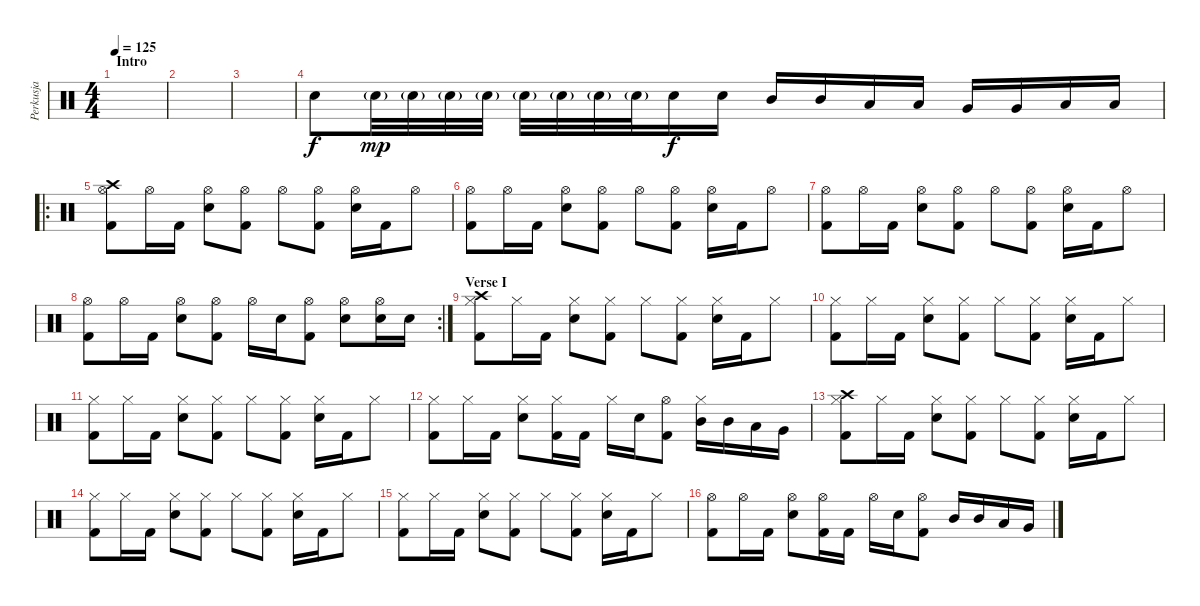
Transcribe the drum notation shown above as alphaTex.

\track ("Perkusja" "Perkusja") {instrument percussion}
\staff {score}
\articulation defaults
\ts (4 4)
\section ("" "Intro")
\tempo 125
\clef neutral
\ks c
|
|
|
"Electric Snare (hit)".8 "Electric Snare (hit)"{g}.32{dy mp} "Electric Snare (hit)"{g}.32 "Electric Snare (hit)"{g}.32 "Electric Snare (hit)"{g}.32 "Electric Snare (hit)"{g}.32 "Electric Snare (hit)"{g}.32 "Electric Snare (hit)"{g}.32 "Electric Snare (hit)"{g}.32 "Electric Snare (hit)".16{dy f} "Electric Snare (hit)".16 "Mid Tom (hit)".16 "Mid Tom (hit)".16 "Low Tom (hit)".16 "Low Tom (hit)".16 "Very Low Tom (hit)".16 "Very Low Tom (hit)".16 "Low Floor Tom (hit)".16 "Low Floor Tom (hit)".16 |
\ro
("Hi-Hat (open)" "Kick (hit) 2" "Crash high (hit)").8 "Hi-Hat (open)".16 "Kick (hit) 2".16 ("Hi-Hat (open)" "Electric Snare (hit)").8 ("Hi-Hat (open)" "Kick (hit) 2").8 "Hi-Hat (open)".8 ("Hi-Hat (open)" "Kick (hit) 2").8 ("Hi-Hat (open)" "Electric Snare (hit)").16 "Kick (hit) 2".16 "Hi-Hat (open)".8 |
("Hi-Hat (open)" "Kick (hit) 2").8 "Hi-Hat (open)".16 "Kick (hit) 2".16 ("Hi-Hat (open)" "Electric Snare (hit)").8 ("Hi-Hat (open)" "Kick (hit) 2").8 "Hi-Hat (open)".8 ("Hi-Hat (open)" "Kick (hit) 2").8 ("Hi-Hat (open)" "Electric Snare (hit)").16 "Kick (hit) 2".16 "Hi-Hat (open)".8 |
("Hi-Hat (open)" "Kick (hit) 2").8 "Hi-Hat (open)".16 "Kick (hit) 2".16 ("Hi-Hat (open)" "Electric Snare (hit)").8 ("Hi-Hat (open)" "Kick (hit) 2").8 "Hi-Hat (open)".8 ("Hi-Hat (open)" "Kick (hit) 2").8 ("Hi-Hat (open)" "Electric Snare (hit)").16 "Kick (hit) 2".16 "Hi-Hat (open)".8 |
\rc 2
("Hi-Hat (open)" "Kick (hit) 2").8 "Hi-Hat (open)".16 "Kick (hit) 2".16 ("Hi-Hat (open)" "Electric Snare (hit)").8 ("Hi-Hat (open)" "Kick (hit) 2").8 "Hi-Hat (open)".16 "Electric Snare (hit)".16 ("Hi-Hat (open)" "Kick (hit) 2").8 ("Hi-Hat (open)" "Electric Snare (hit)").8 ("Hi-Hat (open)" "Electric Snare (hit)").16 "Electric Snare (hit)".16 |
\section ("" "Verse I")
("Hi-Hat (closed)" "Kick (hit) 2" "Crash high (hit)").8 "Hi-Hat (closed)".16 "Kick (hit) 2".16 ("Hi-Hat (closed)" "Electric Snare (hit)").8 ("Hi-Hat (closed)" "Kick (hit) 2").8 "Hi-Hat (closed)".8 ("Hi-Hat (closed)" "Kick (hit) 2").8 ("Hi-Hat (closed)" "Electric Snare (hit)").16 "Kick (hit) 2".16 "Hi-Hat (closed)".8 |
("Hi-Hat (closed)" "Kick (hit) 2").8 "Hi-Hat (closed)".16 "Kick (hit) 2".16 ("Hi-Hat (closed)" "Electric Snare (hit)").8 ("Hi-Hat (closed)" "Kick (hit) 2").8 "Hi-Hat (closed)".8 ("Hi-Hat (closed)" "Kick (hit) 2").8 ("Hi-Hat (closed)" "Electric Snare (hit)").16 "Kick (hit) 2".16 "Hi-Hat (closed)".8 |
("Hi-Hat (closed)" "Kick (hit) 2").8 "Hi-Hat (closed)".16 "Kick (hit) 2".16 ("Hi-Hat (closed)" "Electric Snare (hit)").8 ("Hi-Hat (closed)" "Kick (hit) 2").8 "Hi-Hat (closed)".8 ("Hi-Hat (closed)" "Kick (hit) 2").8 ("Hi-Hat (closed)" "Electric Snare (hit)").16 "Kick (hit) 2".16 "Hi-Hat (closed)".8 |
("Hi-Hat (closed)" "Kick (hit) 2").8 "Hi-Hat (closed)".16 "Kick (hit) 2".16 ("Hi-Hat (closed)" "Electric Snare (hit)").8 ("Hi-Hat (closed)" "Kick (hit) 2").16 "Kick (hit) 2".16 "Hi-Hat (closed)".16 "Electric Snare (hit)".16 ("Hi-Hat (open)" "Kick (hit) 2").8 ("Hi-Hat (closed)" "Mid Tom (hit)").16 "Mid Tom (hit)".16 "Low Tom (hit)".16 "Very Low Tom (hit)".16 |
("Hi-Hat (closed)" "Kick (hit) 2" "Crash high (hit)").8 "Hi-Hat (closed)".16 "Kick (hit) 2".16 ("Hi-Hat (closed)" "Electric Snare (hit)").8 ("Hi-Hat (closed)" "Kick (hit) 2").8 "Hi-Hat (closed)".8 ("Hi-Hat (closed)" "Kick (hit) 2").8 ("Hi-Hat (closed)" "Electric Snare (hit)").16 "Kick (hit) 2".16 "Hi-Hat (closed)".8 |
("Hi-Hat (closed)" "Kick (hit) 2").8 "Hi-Hat (closed)".16 "Kick (hit) 2".16 ("Hi-Hat (closed)" "Electric Snare (hit)").8 ("Hi-Hat (closed)" "Kick (hit) 2").8 "Hi-Hat (closed)".8 ("Hi-Hat (closed)" "Kick (hit) 2").8 ("Hi-Hat (closed)" "Electric Snare (hit)").16 "Kick (hit) 2".16 "Hi-Hat (closed)".8 |
("Hi-Hat (closed)" "Kick (hit) 2").8 "Hi-Hat (closed)".16 "Kick (hit) 2".16 ("Hi-Hat (closed)" "Electric Snare (hit)").8 ("Hi-Hat (closed)" "Kick (hit) 2").8 "Hi-Hat (closed)".8 ("Hi-Hat (closed)" "Kick (hit) 2").8 ("Hi-Hat (closed)" "Electric Snare (hit)").16 "Kick (hit) 2".16 "Hi-Hat (closed)".8 |
("Hi-Hat (open)" "Kick (hit) 2").8 "Hi-Hat (open)".16 "Kick (hit) 2".16 ("Hi-Hat (open)" "Electric Snare (hit)").8 ("Hi-Hat (open)" "Kick (hit) 2").16 "Kick (hit) 2".16 "Hi-Hat (open)".16 "Electric Snare (hit)".16 ("Hi-Hat (open)" "Kick (hit) 2").8 "Mid Tom (hit)".16 "Mid Tom (hit)".16 "Low Tom (hit)".16 "Very Low Tom (hit)".16
